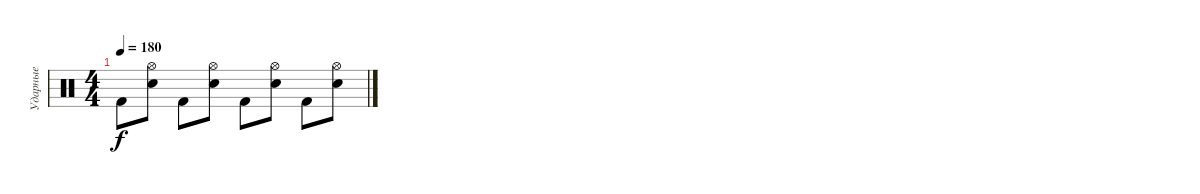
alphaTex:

\track ("Ударные" "Ударные") {instrument percussion}
\staff {score}
\articulation defaults
\ts (4 4)
\tempo 180
\clef neutral
\ks c "Kick (hit) 2".8{dy f}
("Hi-Hat (open)" "Electric Snare (hit)").8 "Kick (hit) 2".8 ("Hi-Hat (open)" "Electric Snare (hit)").8 "Kick (hit) 2".8 ("Hi-Hat (open)" "Electric Snare (hit)").8 "Kick (hit) 2".8 ("Hi-Hat (open)" "Electric Snare (hit)").8
